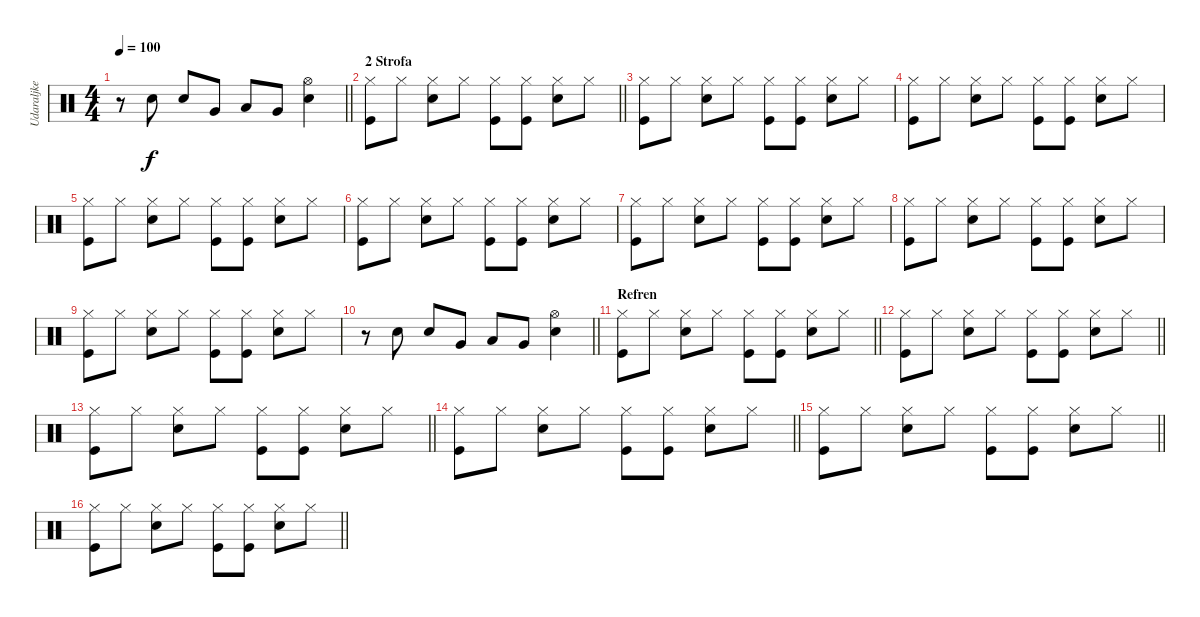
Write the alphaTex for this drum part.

\track ("Udaraljke" "Udaraljke") {instrument percussion}
\staff {score}
\articulation defaults
\ts (4 4)
\tempo 100
\clef neutral
\barLineRight lightlight
\ks c
r.8{dy f} "Electric Snare (hit)".8 "Electric Snare (hit)".8 "Very Low Tom (hit)".8 "Low Tom (hit)".8 "Very Low Tom (hit)".8 ("Hi-Hat (open)" "Electric Snare (hit)").4 |
\section ("" "2 Strofa")
\barLineRight lightlight
("Hi-Hat (closed)" "Kick (hit)").8 "Hi-Hat (closed)".8 ("Hi-Hat (closed)" "Snare (hit) 2").8 "Hi-Hat (closed)".8 ("Hi-Hat (closed)" "Kick (hit)").8 ("Hi-Hat (closed)" "Kick (hit)").8 ("Hi-Hat (closed)" "Snare (hit) 2").8 "Hi-Hat (closed)".8 |
("Hi-Hat (closed)" "Kick (hit)").8 "Hi-Hat (closed)".8 ("Hi-Hat (closed)" "Snare (hit) 2").8 "Hi-Hat (closed)".8 ("Hi-Hat (closed)" "Kick (hit)").8 ("Hi-Hat (closed)" "Kick (hit)").8 ("Hi-Hat (closed)" "Snare (hit) 2").8 "Hi-Hat (closed)".8 |
("Hi-Hat (closed)" "Kick (hit)").8 "Hi-Hat (closed)".8 ("Hi-Hat (closed)" "Snare (hit) 2").8 "Hi-Hat (closed)".8 ("Hi-Hat (closed)" "Kick (hit)").8 ("Hi-Hat (closed)" "Kick (hit)").8 ("Hi-Hat (closed)" "Snare (hit) 2").8 "Hi-Hat (closed)".8 |
("Hi-Hat (closed)" "Kick (hit)").8 "Hi-Hat (closed)".8 ("Hi-Hat (closed)" "Snare (hit) 2").8 "Hi-Hat (closed)".8 ("Hi-Hat (closed)" "Kick (hit)").8 ("Hi-Hat (closed)" "Kick (hit)").8 ("Hi-Hat (closed)" "Snare (hit) 2").8 "Hi-Hat (closed)".8 |
("Hi-Hat (closed)" "Kick (hit)").8 "Hi-Hat (closed)".8 ("Hi-Hat (closed)" "Snare (hit) 2").8 "Hi-Hat (closed)".8 ("Hi-Hat (closed)" "Kick (hit)").8 ("Hi-Hat (closed)" "Kick (hit)").8 ("Hi-Hat (closed)" "Snare (hit) 2").8 "Hi-Hat (closed)".8 |
("Hi-Hat (closed)" "Kick (hit)").8 "Hi-Hat (closed)".8 ("Hi-Hat (closed)" "Snare (hit) 2").8 "Hi-Hat (closed)".8 ("Hi-Hat (closed)" "Kick (hit)").8 ("Hi-Hat (closed)" "Kick (hit)").8 ("Hi-Hat (closed)" "Snare (hit) 2").8 "Hi-Hat (closed)".8 |
("Hi-Hat (closed)" "Kick (hit)").8 "Hi-Hat (closed)".8 ("Hi-Hat (closed)" "Snare (hit) 2").8 "Hi-Hat (closed)".8 ("Hi-Hat (closed)" "Kick (hit)").8 ("Hi-Hat (closed)" "Kick (hit)").8 ("Hi-Hat (closed)" "Snare (hit) 2").8 "Hi-Hat (closed)".8 |
("Hi-Hat (closed)" "Kick (hit)").8 "Hi-Hat (closed)".8 ("Hi-Hat (closed)" "Snare (hit) 2").8 "Hi-Hat (closed)".8 ("Hi-Hat (closed)" "Kick (hit)").8 ("Hi-Hat (closed)" "Kick (hit)").8 ("Hi-Hat (closed)" "Snare (hit) 2").8 "Hi-Hat (closed)".8 |
\barLineRight lightlight
r.8 "Electric Snare (hit)".8 "Electric Snare (hit)".8 "Very Low Tom (hit)".8 "Low Tom (hit)".8 "Very Low Tom (hit)".8 ("Hi-Hat (open)" "Electric Snare (hit)").4 |
\section ("" "Refren")
\barLineRight lightlight
("Hi-Hat (closed)" "Kick (hit)").8 "Hi-Hat (closed)".8 ("Hi-Hat (closed)" "Snare (hit) 2").8 "Hi-Hat (closed)".8 ("Hi-Hat (closed)" "Kick (hit)").8 ("Hi-Hat (closed)" "Kick (hit)").8 ("Hi-Hat (closed)" "Snare (hit) 2").8 "Hi-Hat (closed)".8 |
\barLineRight lightlight
("Hi-Hat (closed)" "Kick (hit)").8 "Hi-Hat (closed)".8 ("Hi-Hat (closed)" "Snare (hit) 2").8 "Hi-Hat (closed)".8 ("Hi-Hat (closed)" "Kick (hit)").8 ("Hi-Hat (closed)" "Kick (hit)").8 ("Hi-Hat (closed)" "Snare (hit) 2").8 "Hi-Hat (closed)".8 |
\barLineRight lightlight
("Hi-Hat (closed)" "Kick (hit)").8 "Hi-Hat (closed)".8 ("Hi-Hat (closed)" "Snare (hit) 2").8 "Hi-Hat (closed)".8 ("Hi-Hat (closed)" "Kick (hit)").8 ("Hi-Hat (closed)" "Kick (hit)").8 ("Hi-Hat (closed)" "Snare (hit) 2").8 "Hi-Hat (closed)".8 |
\barLineRight lightlight
("Hi-Hat (closed)" "Kick (hit)").8 "Hi-Hat (closed)".8 ("Hi-Hat (closed)" "Snare (hit) 2").8 "Hi-Hat (closed)".8 ("Hi-Hat (closed)" "Kick (hit)").8 ("Hi-Hat (closed)" "Kick (hit)").8 ("Hi-Hat (closed)" "Snare (hit) 2").8 "Hi-Hat (closed)".8 |
\barLineRight lightlight
("Hi-Hat (closed)" "Kick (hit)").8 "Hi-Hat (closed)".8 ("Hi-Hat (closed)" "Snare (hit) 2").8 "Hi-Hat (closed)".8 ("Hi-Hat (closed)" "Kick (hit)").8 ("Hi-Hat (closed)" "Kick (hit)").8 ("Hi-Hat (closed)" "Snare (hit) 2").8 "Hi-Hat (closed)".8 |
\barLineRight lightlight
("Hi-Hat (closed)" "Kick (hit)").8 "Hi-Hat (closed)".8 ("Hi-Hat (closed)" "Snare (hit) 2").8 "Hi-Hat (closed)".8 ("Hi-Hat (closed)" "Kick (hit)").8 ("Hi-Hat (closed)" "Kick (hit)").8 ("Hi-Hat (closed)" "Snare (hit) 2").8 "Hi-Hat (closed)".8
